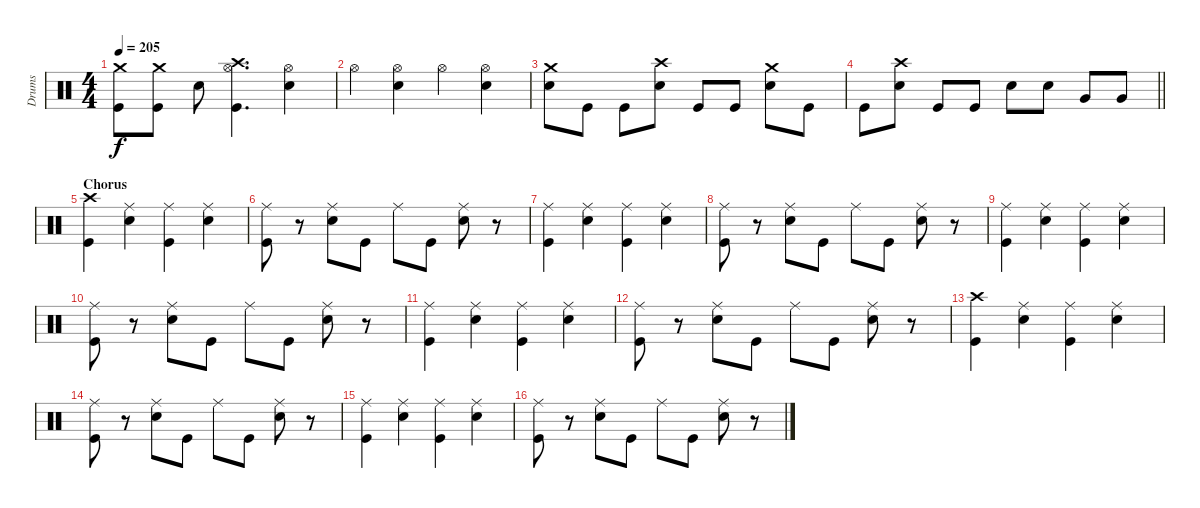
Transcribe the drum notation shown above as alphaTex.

\track ("Drums" "Drums") {instrument percussion}
\staff {score}
\articulation defaults
\ts (4 4)
\tempo 205
\clef neutral
\ks c
("Crash medium (hit)" "Kick (hit)").8{dy f} ("Crash medium (hit)" "Kick (hit)").8 "Electric Snare (hit)".8 ("Crash high (hit)" "Hi-Hat (open)" "Kick (hit)").4{d} ("Hi-Hat (open)" "Electric Snare (hit)").4 |
"Hi-Hat (open)".4 ("Hi-Hat (open)" "Electric Snare (hit)").4 "Hi-Hat (open)".4 ("Hi-Hat (open)" "Electric Snare (hit)").4 |
("Crash medium (hit)" "Electric Snare (hit)").8 "Kick (hit)".8 "Kick (hit)".8 ("Crash high (hit)" "Electric Snare (hit)").8 "Kick (hit)".8 "Kick (hit)".8 ("Crash medium (hit)" "Electric Snare (hit)").8 "Kick (hit)".8 |
\barLineRight lightlight "Kick (hit)".8
("Crash high (hit)" "Electric Snare (hit)").8 "Kick (hit)".8 "Kick (hit)".8 "Electric Snare (hit)".8 "Electric Snare (hit)".8 "Very Low Tom (hit)".8 "Very Low Tom (hit)".8 |
\section ("" "Chorus")
("Crash high (hit)" "Kick (hit)").4 ("Ride (middle)" "Electric Snare (hit)").4 ("Ride (middle)" "Kick (hit)").4 ("Ride (middle)" "Electric Snare (hit)").4 |
("Ride (middle)" "Kick (hit)").8 r.8 ("Ride (middle)" "Electric Snare (hit)").8 "Kick (hit)".8 "Ride (middle)".8 "Kick (hit)".8 ("Ride (middle)" "Electric Snare (hit)").8 r.8 |
("Ride (middle)" "Kick (hit)").4 ("Ride (middle)" "Electric Snare (hit)").4 ("Ride (middle)" "Kick (hit)").4 ("Ride (middle)" "Electric Snare (hit)").4 |
("Ride (middle)" "Kick (hit)").8 r.8 ("Ride (middle)" "Electric Snare (hit)").8 "Kick (hit)".8 "Ride (middle)".8 "Kick (hit)".8 ("Ride (middle)" "Electric Snare (hit)").8 r.8 |
("Ride (middle)" "Kick (hit)").4 ("Ride (middle)" "Electric Snare (hit)").4 ("Ride (middle)" "Kick (hit)").4 ("Ride (middle)" "Electric Snare (hit)").4 |
("Ride (middle)" "Kick (hit)").8 r.8 ("Ride (middle)" "Electric Snare (hit)").8 "Kick (hit)".8 "Ride (middle)".8 "Kick (hit)".8 ("Ride (middle)" "Electric Snare (hit)").8 r.8 |
("Ride (middle)" "Kick (hit)").4 ("Ride (middle)" "Electric Snare (hit)").4 ("Ride (middle)" "Kick (hit)").4 ("Ride (middle)" "Electric Snare (hit)").4 |
("Ride (middle)" "Kick (hit)").8 r.8 ("Ride (middle)" "Electric Snare (hit)").8 "Kick (hit)".8 "Ride (middle)".8 "Kick (hit)".8 ("Ride (middle)" "Electric Snare (hit)").8 r.8 |
("Crash high (hit)" "Kick (hit)").4 ("Ride (middle)" "Electric Snare (hit)").4 ("Ride (middle)" "Kick (hit)").4 ("Ride (middle)" "Electric Snare (hit)").4 |
("Ride (middle)" "Kick (hit)").8 r.8 ("Ride (middle)" "Electric Snare (hit)").8 "Kick (hit)".8 "Ride (middle)".8 "Kick (hit)".8 ("Ride (middle)" "Electric Snare (hit)").8 r.8 |
("Ride (middle)" "Kick (hit)").4 ("Ride (middle)" "Electric Snare (hit)").4 ("Ride (middle)" "Kick (hit)").4 ("Ride (middle)" "Electric Snare (hit)").4 |
("Ride (middle)" "Kick (hit)").8 r.8 ("Ride (middle)" "Electric Snare (hit)").8 "Kick (hit)".8 "Ride (middle)".8 "Kick (hit)".8 ("Ride (middle)" "Electric Snare (hit)").8 r.8
